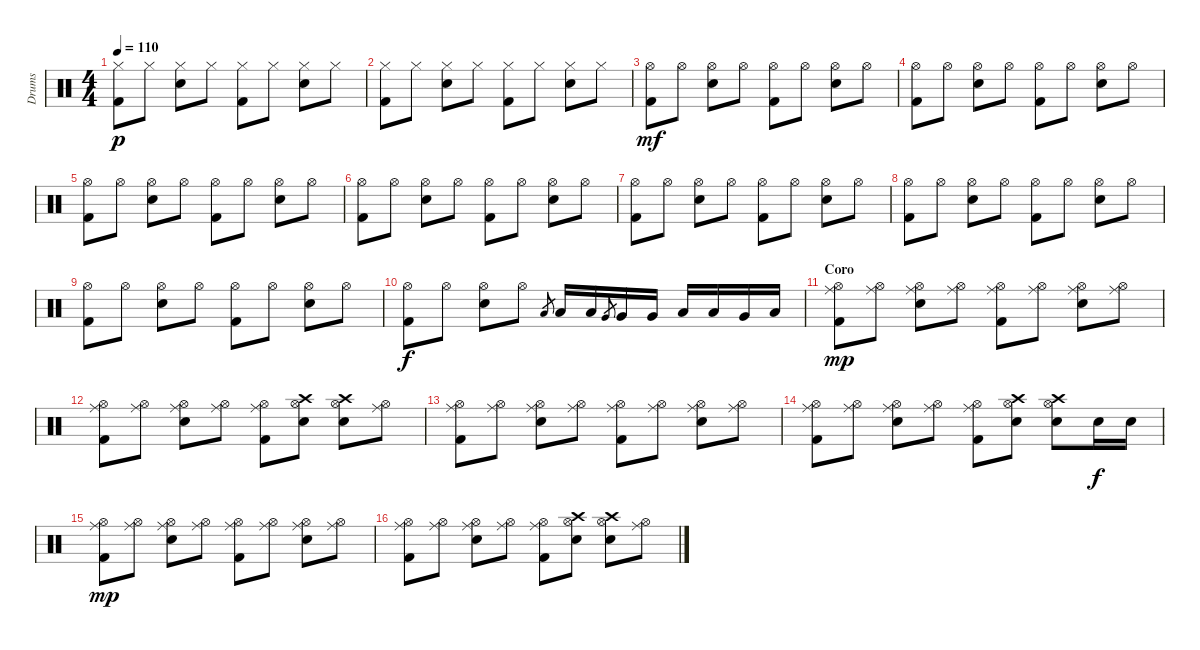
\track ("Drums" "Drums") {instrument percussion}
\staff {score}
\articulation defaults
\ts (4 4)
\tempo 110
\clef neutral
\ks c
("Hi-Hat (closed)" "Kick (hit) 2").8{dy p} "Hi-Hat (closed)".8 ("Hi-Hat (closed)" "Snare (hit) 2").8 "Hi-Hat (closed)".8 ("Hi-Hat (closed)" "Kick (hit) 2").8 "Hi-Hat (closed)".8 ("Hi-Hat (closed)" "Snare (hit) 2").8 "Hi-Hat (closed)".8 |
("Hi-Hat (closed)" "Kick (hit) 2").8 "Hi-Hat (closed)".8 ("Hi-Hat (closed)" "Snare (hit) 2").8 "Hi-Hat (closed)".8 ("Hi-Hat (closed)" "Kick (hit) 2").8 "Hi-Hat (closed)".8 ("Hi-Hat (closed)" "Snare (hit) 2").8 "Hi-Hat (closed)".8 |
("Hi-Hat (open)" "Kick (hit) 2").8{dy mf} "Hi-Hat (open)".8 ("Hi-Hat (open)" "Snare (hit) 2").8 "Hi-Hat (open)".8 ("Hi-Hat (open)" "Kick (hit) 2").8 "Hi-Hat (open)".8 ("Hi-Hat (open)" "Snare (hit) 2").8 "Hi-Hat (open)".8 |
("Hi-Hat (open)" "Kick (hit) 2").8 "Hi-Hat (open)".8 ("Hi-Hat (open)" "Snare (hit) 2").8 "Hi-Hat (open)".8 ("Hi-Hat (open)" "Kick (hit) 2").8 "Hi-Hat (open)".8 ("Hi-Hat (open)" "Snare (hit) 2").8 "Hi-Hat (open)".8 |
("Hi-Hat (open)" "Kick (hit) 2").8 "Hi-Hat (open)".8 ("Hi-Hat (open)" "Snare (hit) 2").8 "Hi-Hat (open)".8 ("Hi-Hat (open)" "Kick (hit) 2").8 "Hi-Hat (open)".8 ("Hi-Hat (open)" "Snare (hit) 2").8 "Hi-Hat (open)".8 |
("Hi-Hat (open)" "Kick (hit) 2").8 "Hi-Hat (open)".8 ("Hi-Hat (open)" "Snare (hit) 2").8 "Hi-Hat (open)".8 ("Hi-Hat (open)" "Kick (hit) 2").8 "Hi-Hat (open)".8 ("Hi-Hat (open)" "Snare (hit) 2").8 "Hi-Hat (open)".8 |
("Hi-Hat (open)" "Kick (hit) 2").8 "Hi-Hat (open)".8 ("Hi-Hat (open)" "Snare (hit) 2").8 "Hi-Hat (open)".8 ("Hi-Hat (open)" "Kick (hit) 2").8 "Hi-Hat (open)".8 ("Hi-Hat (open)" "Snare (hit) 2").8 "Hi-Hat (open)".8 |
("Hi-Hat (open)" "Kick (hit) 2").8 "Hi-Hat (open)".8 ("Hi-Hat (open)" "Snare (hit) 2").8 "Hi-Hat (open)".8 ("Hi-Hat (open)" "Kick (hit) 2").8 "Hi-Hat (open)".8 ("Hi-Hat (open)" "Snare (hit) 2").8 "Hi-Hat (open)".8 |
("Hi-Hat (open)" "Kick (hit) 2").8 "Hi-Hat (open)".8 ("Hi-Hat (open)" "Snare (hit) 2").8 "Hi-Hat (open)".8 ("Hi-Hat (open)" "Kick (hit) 2").8 "Hi-Hat (open)".8 ("Hi-Hat (open)" "Snare (hit) 2").8 "Hi-Hat (open)".8 |
("Hi-Hat (open)" "Kick (hit) 2").8{dy f} "Hi-Hat (open)".8 ("Snare (hit) 2" "Hi-Hat (open)").8 "Hi-Hat (open)".8 "Low Tom (hit)".8{gr} "Low Tom (hit)".16 "Low Tom (hit)".16 "Very Low Tom (hit)".8{gr} "Very Low Tom (hit)".16 "Very Low Tom (hit)".16 "Low Tom (hit)".16 "Low Tom (hit)".16 "Very Low Tom (hit)".16 "Low Floor Tom (hit)".16 |
\section ("" "Coro")
("Hi-Hat (open)" "Ride (middle)" "Kick (hit) 2").8{dy mp} ("Hi-Hat (open)" "Ride (middle)").8 ("Hi-Hat (open)" "Ride (middle)" "Snare (hit) 2").8 ("Hi-Hat (open)" "Ride (middle)").8 ("Hi-Hat (open)" "Ride (middle)" "Kick (hit) 2").8 ("Hi-Hat (open)" "Ride (middle)").8 ("Hi-Hat (open)" "Ride (middle)" "Snare (hit) 2").8 ("Hi-Hat (open)" "Ride (middle)").8 |
("Hi-Hat (open)" "Ride (middle)" "Kick (hit) 2").8 ("Hi-Hat (open)" "Ride (middle)").8 ("Hi-Hat (open)" "Ride (middle)" "Snare (hit) 2").8 ("Hi-Hat (open)" "Ride (middle)").8 ("Hi-Hat (open)" "Ride (middle)" "Kick (hit) 2").8 ("Hi-Hat (open)" "Snare (hit) 2" "Crash high (hit)").8 ("Hi-Hat (open)" "Snare (hit) 2" "Crash high (hit)").8 ("Hi-Hat (open)" "Ride (middle)").8 |
("Hi-Hat (open)" "Ride (middle)" "Kick (hit) 2").8 ("Hi-Hat (open)" "Ride (middle)").8 ("Hi-Hat (open)" "Ride (middle)" "Snare (hit) 2").8 ("Hi-Hat (open)" "Ride (middle)").8 ("Hi-Hat (open)" "Ride (middle)" "Kick (hit) 2").8 ("Hi-Hat (open)" "Ride (middle)").8 ("Hi-Hat (open)" "Ride (middle)" "Snare (hit) 2").8 ("Hi-Hat (open)" "Ride (middle)").8 |
("Hi-Hat (open)" "Ride (middle)" "Kick (hit) 2").8 ("Hi-Hat (open)" "Ride (middle)").8 ("Hi-Hat (open)" "Ride (middle)" "Snare (hit) 2").8 ("Hi-Hat (open)" "Ride (middle)").8 ("Hi-Hat (open)" "Ride (middle)" "Kick (hit) 2").8 ("Hi-Hat (open)" "Snare (hit) 2" "Crash high (hit)").8 ("Hi-Hat (open)" "Snare (hit) 2" "Crash high (hit)").8 "Snare (hit) 2".16{dy f} "Snare (hit) 2".16 |
("Hi-Hat (open)" "Ride (middle)" "Kick (hit) 2").8{dy mp} ("Hi-Hat (open)" "Ride (middle)").8 ("Hi-Hat (open)" "Ride (middle)" "Snare (hit) 2").8 ("Hi-Hat (open)" "Ride (middle)").8 ("Hi-Hat (open)" "Ride (middle)" "Kick (hit) 2").8 ("Hi-Hat (open)" "Ride (middle)").8 ("Hi-Hat (open)" "Ride (middle)" "Snare (hit) 2").8 ("Hi-Hat (open)" "Ride (middle)").8 |
("Hi-Hat (open)" "Ride (middle)" "Kick (hit) 2").8 ("Hi-Hat (open)" "Ride (middle)").8 ("Hi-Hat (open)" "Ride (middle)" "Snare (hit) 2").8 ("Hi-Hat (open)" "Ride (middle)").8 ("Hi-Hat (open)" "Ride (middle)" "Kick (hit) 2").8 ("Hi-Hat (open)" "Snare (hit) 2" "Crash high (hit)").8 ("Hi-Hat (open)" "Snare (hit) 2" "Crash high (hit)").8 ("Hi-Hat (open)" "Ride (middle)").8
